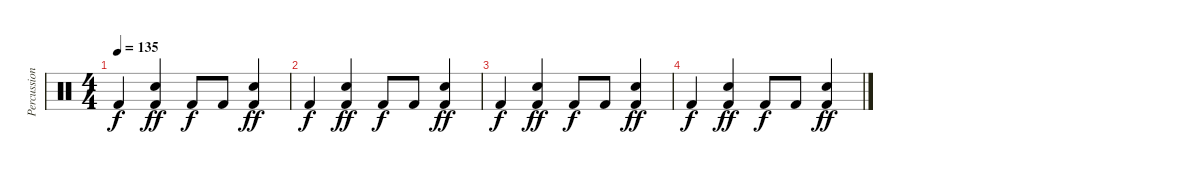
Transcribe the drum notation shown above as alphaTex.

\track ("Percussion" "Percussion") {instrument percussion}
\staff {score}
\articulation defaults
\ts (4 4)
\tempo 135
\clef neutral
\ks c "Kick (hit) 2".4{dy f}
("Electric Snare (hit)" "Kick (hit) 2").4{dy ff} "Kick (hit) 2".8{dy f} "Kick (hit) 2".8 ("Electric Snare (hit)" "Kick (hit) 2").4{dy ff} |
"Kick (hit) 2".4{dy f} ("Electric Snare (hit)" "Kick (hit) 2").4{dy ff} "Kick (hit) 2".8{dy f} "Kick (hit) 2".8 ("Electric Snare (hit)" "Kick (hit) 2").4{dy ff} |
"Kick (hit) 2".4{dy f} ("Electric Snare (hit)" "Kick (hit) 2").4{dy ff} "Kick (hit) 2".8{dy f} "Kick (hit) 2".8 ("Electric Snare (hit)" "Kick (hit) 2").4{dy ff} |
"Kick (hit) 2".4{dy f} ("Electric Snare (hit)" "Kick (hit) 2").4{dy ff} "Kick (hit) 2".8{dy f} "Kick (hit) 2".8 ("Electric Snare (hit)" "Kick (hit) 2").4{dy ff}
